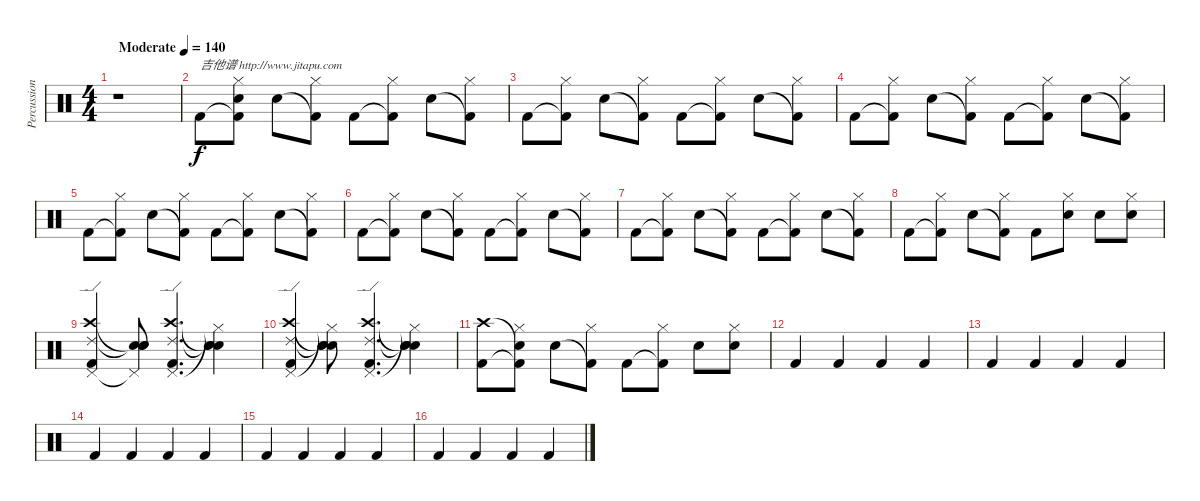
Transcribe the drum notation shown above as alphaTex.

\track ("Percussion" "Percussion") {instrument percussion}
\staff {score}
\articulation defaults
\ts (4 4)
\tempo (140 "Moderate")
\clef neutral
\ks c
r.1{dy f} |
"Kick (hit) 2".8{txt "吉他谱 http://www.jitapu.com"} ("Kick (hit) 2"{t} "Snare (hit)" "Hi-Hat (closed)").8 "Snare (hit) 2".8 ("Kick (hit) 2"{t} "Hi-Hat (closed)").8 "Kick (hit) 2".8 ("Kick (hit) 2"{t} "Hi-Hat (closed)").8 "Snare (hit) 2".8 ("Kick (hit) 2"{t} "Hi-Hat (closed)").8 |
"Kick (hit) 2".8 ("Kick (hit) 2"{t} "Hi-Hat (closed)").8 "Snare (hit) 2".8 ("Kick (hit) 2"{t} "Hi-Hat (closed)").8 "Kick (hit) 2".8 ("Kick (hit) 2"{t} "Hi-Hat (closed)").8 "Snare (hit) 2".8 ("Kick (hit) 2"{t} "Hi-Hat (closed)").8 |
"Kick (hit) 2".8 ("Kick (hit) 2"{t} "Hi-Hat (closed)").8 "Snare (hit) 2".8 ("Kick (hit) 2"{t} "Hi-Hat (closed)").8 "Kick (hit) 2".8 ("Kick (hit) 2"{t} "Hi-Hat (closed)").8 "Snare (hit) 2".8 ("Kick (hit) 2"{t} "Hi-Hat (closed)").8 |
"Kick (hit) 2".8 ("Kick (hit) 2"{t} "Hi-Hat (closed)").8 "Snare (hit) 2".8 ("Kick (hit) 2"{t} "Hi-Hat (closed)").8 "Kick (hit) 2".8 ("Kick (hit) 2"{t} "Hi-Hat (closed)").8 "Snare (hit) 2".8 ("Kick (hit) 2"{t} "Hi-Hat (closed)").8 |
"Kick (hit) 2".8 ("Kick (hit) 2"{t} "Hi-Hat (closed)").8 "Snare (hit) 2".8 ("Kick (hit) 2"{t} "Hi-Hat (closed)").8 "Kick (hit) 2".8 ("Kick (hit) 2"{t} "Hi-Hat (closed)").8 "Snare (hit) 2".8 ("Kick (hit) 2"{t} "Hi-Hat (closed)").8 |
"Kick (hit) 2".8 ("Kick (hit) 2"{t} "Hi-Hat (closed)").8 "Snare (hit) 2".8 ("Kick (hit) 2"{t} "Hi-Hat (closed)").8 "Kick (hit) 2".8 ("Kick (hit) 2"{t} "Hi-Hat (closed)").8 "Snare (hit) 2".8 ("Kick (hit) 2"{t} "Hi-Hat (closed)").8 |
"Kick (hit) 2".8 ("Kick (hit) 2"{t} "Hi-Hat (closed)").8 "Snare (hit) 2".8 ("Kick (hit) 2"{t} "Hi-Hat (closed)").8 "Kick (hit) 2".8 ("Snare (hit) 2" "Hi-Hat (closed)").8 "Snare (hit) 2".8 ("Snare (hit) 2" "Hi-Hat (closed)").8 |
("Kick (hit) 2" "Crash high (hit)" "Ride (edge) 2" "Pedal Hi-Hat (hit)").4 ("Snare (hit) 2" "Snare (hit)"{t} "Snare (hit)"{t} "Pedal Hi-Hat (hit)"{t}).8 ("Kick (hit) 2" "Crash high (hit)" "Ride (edge) 2" "Pedal Hi-Hat (hit)").4{d} ("Snare (hit) 2" "Snare (hit)"{t} "Snare (hit)"{t} "Hi-Hat (closed)"{t}).4 |
("Kick (hit) 2" "Crash high (hit)" "Ride (edge) 2" "Pedal Hi-Hat (hit)").4 ("Snare (hit) 2" "Snare (hit)"{t} "Snare (hit)"{t} "Hi-Hat (closed)"{t}).8 ("Kick (hit) 2" "Crash high (hit)" "Ride (edge) 2" "Pedal Hi-Hat (hit)").4{d} ("Snare (hit) 2" "Snare (hit)"{t} "Snare (hit)"{t} "Hi-Hat (closed)"{t}).4 |
("Kick (hit) 2" "Crash high (hit)").8 ("Kick (hit) 2"{t} "Snare (hit)"{t} "Hi-Hat (closed)").8 "Snare (hit) 2".8 ("Kick (hit) 2"{t} "Hi-Hat (closed)").8 "Kick (hit) 2".8 ("Kick (hit) 2"{t} "Hi-Hat (closed)").8 "Snare (hit) 2".8 ("Snare (hit) 2" "Hi-Hat (closed)").8 |
"Kick (hit) 2".4 "Kick (hit) 2".4 "Kick (hit) 2".4 "Kick (hit) 2".4 |
"Kick (hit) 2".4 "Kick (hit) 2".4 "Kick (hit) 2".4 "Kick (hit) 2".4 |
"Kick (hit) 2".4 "Kick (hit) 2".4 "Kick (hit) 2".4 "Kick (hit) 2".4 |
"Kick (hit) 2".4 "Kick (hit) 2".4 "Kick (hit) 2".4 "Kick (hit) 2".4 |
"Kick (hit) 2".4 "Kick (hit) 2".4 "Kick (hit) 2".4 "Kick (hit) 2".4
